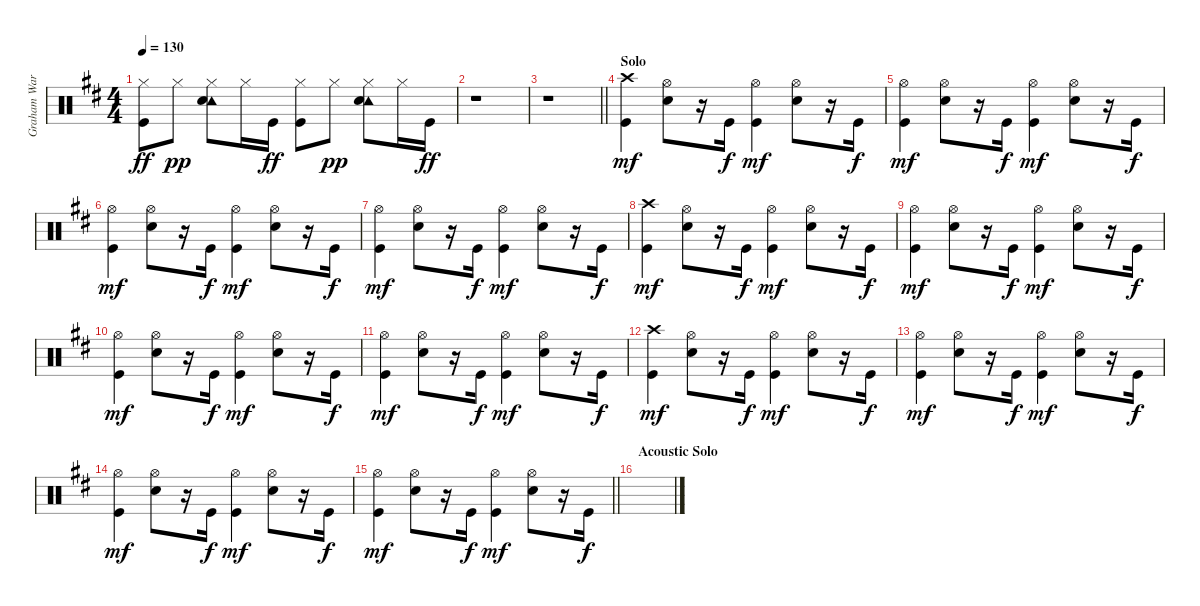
\track ("Graham Ward (DRUMS)" "Graham War") {instrument percussion}
\staff {score}
\articulation defaults
\ts (4 4)
\tempo 130
\clef neutral
\ks d
("Hi-Hat (closed)" "Kick (hit)").8{dy ff} "Hi-Hat (closed)".8{dy pp} ("Tambourine (hit)" "Snare (hit) 2" "Hi-Hat (closed)").8 "Hi-Hat (closed)".16 "Kick (hit)".16{dy ff} ("Hi-Hat (closed)" "Kick (hit)").8 "Hi-Hat (closed)".8{dy pp} ("Tambourine (hit)" "Snare (hit) 2" "Hi-Hat (closed)").8 "Hi-Hat (closed)".16 "Kick (hit)".16{dy ff} |
r.1 |
\barLineRight lightlight
r.1 |
\section ("" "Solo")
("Crash high (hit)" "Kick (hit)").4{dy mf} ("Snare (hit) 2" "Hi-Hat (open)").8 r.16 "Kick (hit)".16{dy f} ("Hi-Hat (open)" "Kick (hit)").4{dy mf} ("Snare (hit) 2" "Hi-Hat (open)").8 r.16 "Kick (hit)".16{dy f} |
("Hi-Hat (open)" "Kick (hit)").4{dy mf} ("Snare (hit) 2" "Hi-Hat (open)").8 r.16 "Kick (hit)".16{dy f} ("Hi-Hat (open)" "Kick (hit)").4{dy mf} ("Snare (hit) 2" "Hi-Hat (open)").8 r.16 "Kick (hit)".16{dy f} |
("Hi-Hat (open)" "Kick (hit)").4{dy mf} ("Snare (hit) 2" "Hi-Hat (open)").8 r.16 "Kick (hit)".16{dy f} ("Hi-Hat (open)" "Kick (hit)").4{dy mf} ("Snare (hit) 2" "Hi-Hat (open)").8 r.16 "Kick (hit)".16{dy f} |
("Hi-Hat (open)" "Kick (hit)").4{dy mf} ("Snare (hit) 2" "Hi-Hat (open)").8 r.16 "Kick (hit)".16{dy f} ("Hi-Hat (open)" "Kick (hit)").4{dy mf} ("Snare (hit) 2" "Hi-Hat (open)").8 r.16 "Kick (hit)".16{dy f} |
("Crash high (hit)" "Kick (hit)").4{dy mf} ("Snare (hit) 2" "Hi-Hat (open)").8 r.16 "Kick (hit)".16{dy f} ("Hi-Hat (open)" "Kick (hit)").4{dy mf} ("Snare (hit) 2" "Hi-Hat (open)").8 r.16 "Kick (hit)".16{dy f} |
("Hi-Hat (open)" "Kick (hit)").4{dy mf} ("Snare (hit) 2" "Hi-Hat (open)").8 r.16 "Kick (hit)".16{dy f} ("Hi-Hat (open)" "Kick (hit)").4{dy mf} ("Snare (hit) 2" "Hi-Hat (open)").8 r.16 "Kick (hit)".16{dy f} |
("Hi-Hat (open)" "Kick (hit)").4{dy mf} ("Snare (hit) 2" "Hi-Hat (open)").8 r.16 "Kick (hit)".16{dy f} ("Hi-Hat (open)" "Kick (hit)").4{dy mf} ("Snare (hit) 2" "Hi-Hat (open)").8 r.16 "Kick (hit)".16{dy f} |
("Hi-Hat (open)" "Kick (hit)").4{dy mf} ("Snare (hit) 2" "Hi-Hat (open)").8 r.16 "Kick (hit)".16{dy f} ("Hi-Hat (open)" "Kick (hit)").4{dy mf} ("Snare (hit) 2" "Hi-Hat (open)").8 r.16 "Kick (hit)".16{dy f} |
("Crash high (hit)" "Kick (hit)").4{dy mf} ("Snare (hit) 2" "Hi-Hat (open)").8 r.16 "Kick (hit)".16{dy f} ("Hi-Hat (open)" "Kick (hit)").4{dy mf} ("Snare (hit) 2" "Hi-Hat (open)").8 r.16 "Kick (hit)".16{dy f} |
("Hi-Hat (open)" "Kick (hit)").4{dy mf} ("Snare (hit) 2" "Hi-Hat (open)").8 r.16 "Kick (hit)".16{dy f} ("Hi-Hat (open)" "Kick (hit)").4{dy mf} ("Snare (hit) 2" "Hi-Hat (open)").8 r.16 "Kick (hit)".16{dy f} |
("Hi-Hat (open)" "Kick (hit)").4{dy mf} ("Snare (hit) 2" "Hi-Hat (open)").8 r.16 "Kick (hit)".16{dy f} ("Hi-Hat (open)" "Kick (hit)").4{dy mf} ("Snare (hit) 2" "Hi-Hat (open)").8 r.16 "Kick (hit)".16{dy f} |
\barLineRight lightlight
("Hi-Hat (open)" "Kick (hit)").4{dy mf} ("Snare (hit) 2" "Hi-Hat (open)").8 r.16 "Kick (hit)".16{dy f} ("Hi-Hat (open)" "Kick (hit)").4{dy mf} ("Snare (hit) 2" "Hi-Hat (open)").8 r.16 "Kick (hit)".16{dy f} |
\section ("" "Acoustic Solo")
